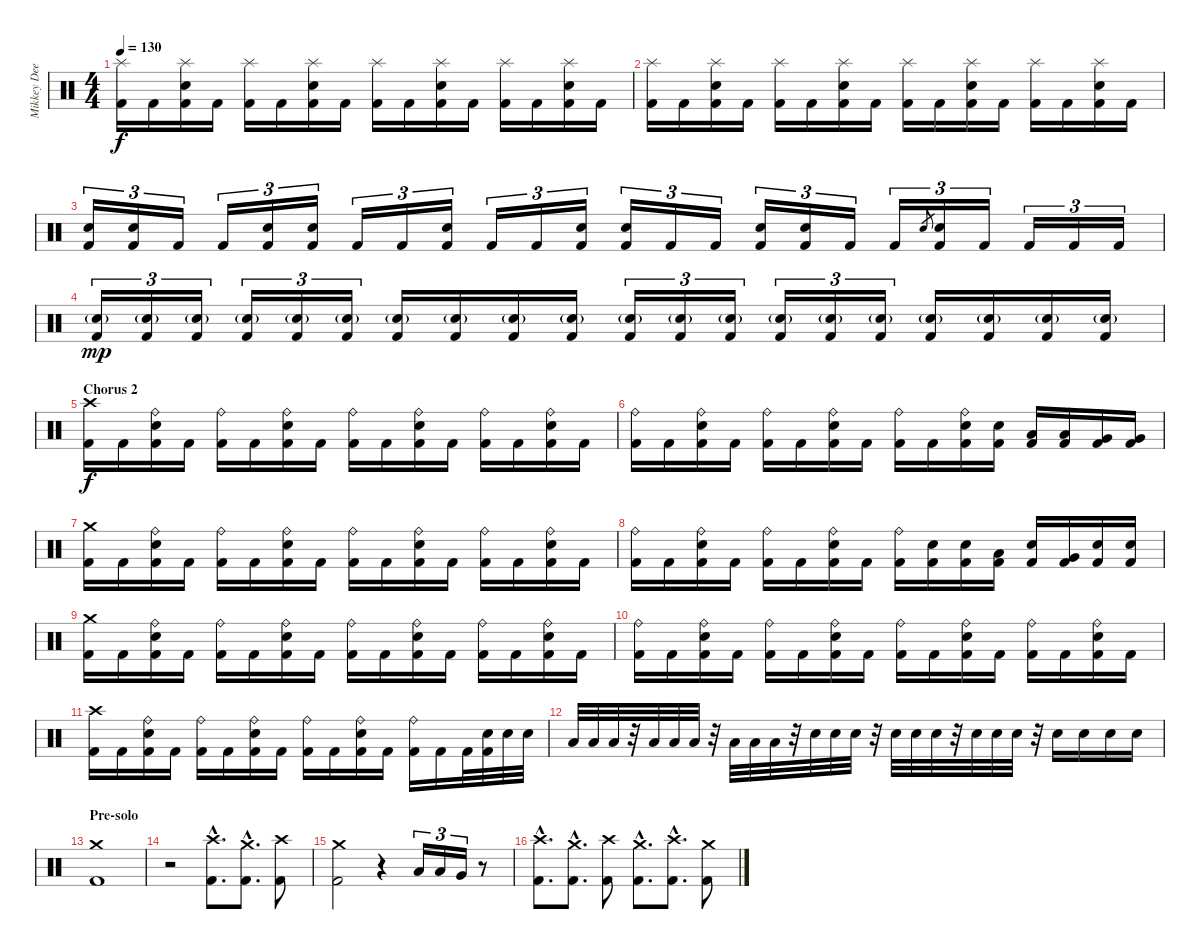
\track ("Mikkey Dee" "Mikkey Dee") {instrument percussion}
\staff {score}
\articulation defaults
\ts (4 4)
\tempo 130
\clef neutral
\ks c
("Splash (hit)" "Kick (hit) 2").16{dy f} "Kick (hit) 2".16 ("Splash (hit)" "Snare (hit) 2" "Kick (hit) 2").16 "Kick (hit) 2".16 ("Splash (hit)" "Kick (hit) 2").16 "Kick (hit) 2".16 ("Splash (hit)" "Snare (hit) 2" "Kick (hit) 2").16 "Kick (hit) 2".16 ("Splash (hit)" "Kick (hit) 2").16 "Kick (hit) 2".16 ("Splash (hit)" "Snare (hit) 2" "Kick (hit) 2").16 "Kick (hit) 2".16 ("Splash (hit)" "Kick (hit) 2").16 "Kick (hit) 2".16 ("Splash (hit)" "Snare (hit) 2" "Kick (hit) 2").16 "Kick (hit) 2".16 |
("Splash (hit)" "Kick (hit) 2").16 "Kick (hit) 2".16 ("Splash (hit)" "Snare (hit) 2" "Kick (hit) 2").16 "Kick (hit) 2".16 ("Splash (hit)" "Kick (hit) 2").16 "Kick (hit) 2".16 ("Splash (hit)" "Snare (hit) 2" "Kick (hit) 2").16 "Kick (hit) 2".16 ("Splash (hit)" "Kick (hit) 2").16 "Kick (hit) 2".16 ("Splash (hit)" "Snare (hit) 2" "Kick (hit) 2").16 "Kick (hit) 2".16 ("Splash (hit)" "Kick (hit) 2").16 "Kick (hit) 2".16 ("Splash (hit)" "Snare (hit) 2" "Kick (hit) 2").16 "Kick (hit) 2".16 |
("Snare (hit) 2" "Kick (hit) 2").16{tu (3 2)} ("Snare (hit) 2" "Kick (hit) 2").16{tu (3 2)} "Kick (hit) 2".16{tu (3 2)} "Kick (hit) 2".16{tu (3 2)} ("Snare (hit) 2" "Kick (hit) 2").16{tu (3 2)} ("Snare (hit) 2" "Kick (hit) 2").16{tu (3 2)} "Kick (hit) 2".16{tu (3 2)} "Kick (hit) 2".16{tu (3 2)} ("Snare (hit) 2" "Kick (hit) 2").16{tu (3 2)} "Kick (hit) 2".16{tu (3 2)} "Kick (hit) 2".16{tu (3 2)} ("Snare (hit) 2" "Kick (hit) 2").16{tu (3 2)} ("Snare (hit) 2" "Kick (hit) 2").16{tu (3 2)} "Kick (hit) 2".16{tu (3 2)} "Kick (hit) 2".16{tu (3 2)} ("Snare (hit) 2" "Kick (hit) 2").16{tu (3 2)} ("Snare (hit) 2" "Kick (hit) 2").16{tu (3 2)} "Kick (hit) 2".16{tu (3 2)} "Kick (hit) 2".16{tu (3 2)} "Snare (hit) 2".8{gr} ("Snare (hit) 2" "Kick (hit) 2").16{tu (3 2)} "Kick (hit) 2".16{tu (3 2)} "Kick (hit) 2".16{tu (3 2)} "Kick (hit) 2".16{tu (3 2)} "Kick (hit) 2".16{tu (3 2)} |
("Snare (hit) 2"{g} "Kick (hit) 2").16{tu (3 2) dy mp} ("Snare (hit) 2"{g} "Kick (hit) 2").16{tu (3 2)} ("Snare (hit) 2"{g} "Kick (hit) 2").16{tu (3 2)} ("Snare (hit) 2"{g} "Kick (hit) 2").16{tu (3 2)} ("Snare (hit) 2"{g} "Kick (hit) 2").16{tu (3 2)} ("Snare (hit) 2"{g} "Kick (hit) 2").16{tu (3 2)} ("Snare (hit) 2"{g} "Kick (hit) 2").16 ("Snare (hit) 2"{g} "Kick (hit) 2").16 ("Snare (hit) 2"{g} "Kick (hit) 2").16 ("Snare (hit) 2"{g} "Kick (hit) 2").16 ("Snare (hit) 2"{g} "Kick (hit) 2").16{tu (3 2)} ("Snare (hit) 2"{g} "Kick (hit) 2").16{tu (3 2)} ("Snare (hit) 2"{g} "Kick (hit) 2").16{tu (3 2)} ("Snare (hit) 2"{g} "Kick (hit) 2").16{tu (3 2)} ("Snare (hit) 2"{g} "Kick (hit) 2").16{tu (3 2)} ("Snare (hit) 2"{g} "Kick (hit) 2").16{tu (3 2)} ("Snare (hit) 2"{g} "Kick (hit) 2").16 ("Snare (hit) 2"{g} "Kick (hit) 2").16 ("Snare (hit) 2"{g} "Kick (hit) 2").16 ("Snare (hit) 2"{g} "Kick (hit) 2").16 |
\section ("" "Chorus 2")
("Crash high (hit)" "Kick (hit) 2").16{dy f} "Kick (hit) 2".16 ("Ride (bell)" "Snare (hit) 2" "Kick (hit) 2").16 "Kick (hit) 2".16 ("Ride (bell)" "Kick (hit) 2").16 "Kick (hit) 2".16 ("Ride (bell)" "Snare (hit) 2" "Kick (hit) 2").16 "Kick (hit) 2".16 ("Ride (bell)" "Kick (hit) 2").16 "Kick (hit) 2".16 ("Ride (bell)" "Snare (hit) 2" "Kick (hit) 2").16 "Kick (hit) 2".16 ("Ride (bell)" "Kick (hit) 2").16 "Kick (hit) 2".16 ("Ride (bell)" "Snare (hit) 2" "Kick (hit) 2").16 "Kick (hit) 2".16 |
("Ride (bell)" "Kick (hit) 2").16 "Kick (hit) 2".16 ("Ride (bell)" "Snare (hit) 2" "Kick (hit) 2").16 "Kick (hit) 2".16 ("Ride (bell)" "Kick (hit) 2").16 "Kick (hit) 2".16 ("Ride (bell)" "Snare (hit) 2" "Kick (hit) 2").16 "Kick (hit) 2".16 ("Ride (bell)" "Kick (hit) 2").16 "Kick (hit) 2".16 ("Ride (bell)" "Snare (hit) 2" "Kick (hit) 2").16 ("Snare (hit) 2" "Kick (hit) 2").16 ("Low Tom (hit)" "Kick (hit) 2").16 ("Low Tom (hit)" "Kick (hit) 2").16 ("Very Low Tom (hit)" "Kick (hit) 2").16 ("Very Low Tom (hit)" "Kick (hit) 2").16 |
("Crash medium (hit)" "Kick (hit) 2").16 "Kick (hit) 2".16 ("Ride (bell)" "Snare (hit) 2" "Kick (hit) 2").16 "Kick (hit) 2".16 ("Ride (bell)" "Kick (hit) 2").16 "Kick (hit) 2".16 ("Ride (bell)" "Snare (hit) 2" "Kick (hit) 2").16 "Kick (hit) 2".16 ("Ride (bell)" "Kick (hit) 2").16 "Kick (hit) 2".16 ("Ride (bell)" "Snare (hit) 2" "Kick (hit) 2").16 "Kick (hit) 2".16 ("Ride (bell)" "Kick (hit) 2").16 "Kick (hit) 2".16 ("Ride (bell)" "Snare (hit) 2" "Kick (hit) 2").16 "Kick (hit) 2".16 |
("Ride (bell)" "Kick (hit) 2").16 "Kick (hit) 2".16 ("Ride (bell)" "Snare (hit) 2" "Kick (hit) 2").16 "Kick (hit) 2".16 ("Ride (bell)" "Kick (hit) 2").16 "Kick (hit) 2".16 ("Ride (bell)" "Snare (hit) 2" "Kick (hit) 2").16 "Kick (hit) 2".16 ("Ride (bell)" "Kick (hit) 2").16 ("Snare (hit) 2" "Kick (hit) 2").16 ("Snare (hit) 2" "Kick (hit) 2").16 ("Low Tom (hit)" "Kick (hit) 2").16 ("Snare (hit) 2" "Kick (hit) 2").16 ("Very Low Tom (hit)" "Kick (hit) 2").16 ("Snare (hit) 2" "Kick (hit) 2").16 ("Snare (hit) 2" "Kick (hit) 2").16 |
("Crash medium (hit)" "Kick (hit) 2").16 "Kick (hit) 2".16 ("Ride (bell)" "Snare (hit) 2" "Kick (hit) 2").16 "Kick (hit) 2".16 ("Ride (bell)" "Kick (hit) 2").16 "Kick (hit) 2".16 ("Ride (bell)" "Snare (hit) 2" "Kick (hit) 2").16 "Kick (hit) 2".16 ("Ride (bell)" "Kick (hit) 2").16 "Kick (hit) 2".16 ("Ride (bell)" "Snare (hit) 2" "Kick (hit) 2").16 "Kick (hit) 2".16 ("Ride (bell)" "Kick (hit) 2").16 "Kick (hit) 2".16 ("Ride (bell)" "Snare (hit) 2" "Kick (hit) 2").16 "Kick (hit) 2".16 |
("Ride (bell)" "Kick (hit) 2").16 "Kick (hit) 2".16 ("Ride (bell)" "Snare (hit) 2" "Kick (hit) 2").16 "Kick (hit) 2".16 ("Ride (bell)" "Kick (hit) 2").16 "Kick (hit) 2".16 ("Ride (bell)" "Snare (hit) 2" "Kick (hit) 2").16 "Kick (hit) 2".16 ("Ride (bell)" "Kick (hit) 2").16 "Kick (hit) 2".16 ("Ride (bell)" "Snare (hit) 2" "Kick (hit) 2").16 "Kick (hit) 2".16 ("Ride (bell)" "Kick (hit) 2").16 "Kick (hit) 2".16 ("Ride (bell)" "Snare (hit) 2" "Kick (hit) 2").16 "Kick (hit) 2".16 |
("Crash high (hit)" "Kick (hit) 2").16 "Kick (hit) 2".16 ("Ride (bell)" "Snare (hit) 2" "Kick (hit) 2").16 "Kick (hit) 2".16 ("Ride (bell)" "Kick (hit) 2").16 "Kick (hit) 2".16 ("Ride (bell)" "Snare (hit) 2" "Kick (hit) 2").16 "Kick (hit) 2".16 ("Ride (bell)" "Kick (hit) 2").16 "Kick (hit) 2".16 ("Ride (bell)" "Snare (hit) 2" "Kick (hit) 2").16 "Kick (hit) 2".16 ("Ride (bell)" "Kick (hit) 2").16 "Kick (hit) 2".16 "Kick (hit) 2".32 ("Snare (hit) 2" "Kick (hit) 2").32 "Snare (hit) 2".32 "Snare (hit) 2".32 |
"Low Tom (hit)".32 "Low Tom (hit)".32 "Low Tom (hit)".32 r.32 "Low Tom (hit)".32 "Low Tom (hit)".32 "Low Tom (hit)".32 r.32 "Low Tom (hit)".32 "Low Tom (hit)".32 "Low Tom (hit)".32 r.32 "Snare (hit) 2".32 "Snare (hit) 2".32 "Snare (hit) 2".32 r.32 "Snare (hit) 2".32 "Snare (hit) 2".32 "Snare (hit) 2".32 r.32 "Snare (hit) 2".32 "Snare (hit) 2".32 "Snare (hit) 2".32 r.32 "Snare (hit) 2".16 "Snare (hit) 2".16 "Snare (hit) 2".16 "Snare (hit) 2".16 |
\section ("" "Pre-solo")
("Crash medium (hit)" "Kick (hit) 2").1 |
r.2 ("Crash high (hit)"{hac} "Kick (hit) 2"{hac}).8{d} ("Crash medium (hit)"{hac} "Kick (hit) 2"{hac}).8{d} ("Crash high (hit)" "Kick (hit) 2").8 |
("Crash medium (hit)" "Kick (hit) 2").2 r.4 "Low Tom (hit)".16{tu (3 2)} "Low Tom (hit)".16{tu (3 2)} "Very Low Tom (hit)".16{tu (3 2)} r.8 |
("Crash high (hit)"{hac} "Kick (hit) 2"{hac}).8{d} ("Crash medium (hit)"{hac} "Kick (hit) 2"{hac}).8{d} ("Crash high (hit)" "Kick (hit) 2").8 ("Crash medium (hit)"{hac} "Kick (hit) 2"{hac}).8{d} ("Crash high (hit)"{hac} "Kick (hit) 2"{hac}).8{d} ("Crash medium (hit)" "Kick (hit) 2").8
